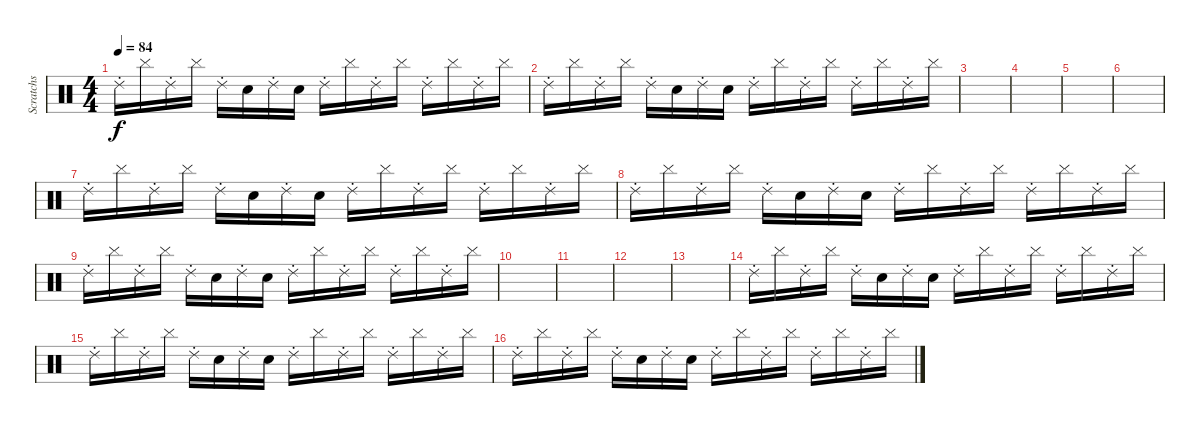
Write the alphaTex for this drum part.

\track ("Scratchs" "Scratchs") {instrument percussion}
\staff {score}
\articulation defaults
\ts (4 4)
\tempo 84
\clef neutral
\ks c "Ride (choke) 2".16{dy f} "Cymbal (hit)".16 "Ride (choke) 2".16 "Cymbal (hit)".16 "Ride (choke) 2".16 "Snare (hit)".16 "Ride (choke) 2".16 "Snare (hit)".16 "Ride (choke) 2".16 "Cymbal (hit)".16 "Ride (choke) 2".16 "Cymbal (hit)".16 "Ride (choke) 2".16 "Cymbal (hit)".16 "Ride (choke) 2".16 "Cymbal (hit)".16
|
"Ride (choke) 2".16 "Cymbal (hit)".16 "Ride (choke) 2".16 "Cymbal (hit)".16 "Ride (choke) 2".16 "Snare (hit)".16 "Ride (choke) 2".16 "Snare (hit)".16 "Ride (choke) 2".16 "Cymbal (hit)".16 "Ride (choke) 2".16 "Cymbal (hit)".16 "Ride (choke) 2".16 "Cymbal (hit)".16 "Ride (choke) 2".16 "Cymbal (hit)".16 |
|
|
|
|
"Ride (choke) 2".16 "Cymbal (hit)".16 "Ride (choke) 2".16 "Cymbal (hit)".16 "Ride (choke) 2".16 "Snare (hit)".16 "Ride (choke) 2".16 "Snare (hit)".16 "Ride (choke) 2".16 "Cymbal (hit)".16 "Ride (choke) 2".16 "Cymbal (hit)".16 "Ride (choke) 2".16 "Cymbal (hit)".16 "Ride (choke) 2".16 "Cymbal (hit)".16 |
"Ride (choke) 2".16 "Cymbal (hit)".16 "Ride (choke) 2".16 "Cymbal (hit)".16 "Ride (choke) 2".16 "Snare (hit)".16 "Ride (choke) 2".16 "Snare (hit)".16 "Ride (choke) 2".16 "Cymbal (hit)".16 "Ride (choke) 2".16 "Cymbal (hit)".16 "Ride (choke) 2".16 "Cymbal (hit)".16 "Ride (choke) 2".16 "Cymbal (hit)".16 |
"Ride (choke) 2".16 "Cymbal (hit)".16 "Ride (choke) 2".16 "Cymbal (hit)".16 "Ride (choke) 2".16 "Snare (hit)".16 "Ride (choke) 2".16 "Snare (hit)".16 "Ride (choke) 2".16 "Cymbal (hit)".16 "Ride (choke) 2".16 "Cymbal (hit)".16 "Ride (choke) 2".16 "Cymbal (hit)".16 "Ride (choke) 2".16 "Cymbal (hit)".16 |
|
|
|
|
"Ride (choke) 2".16 "Cymbal (hit)".16 "Ride (choke) 2".16 "Cymbal (hit)".16 "Ride (choke) 2".16 "Snare (hit)".16 "Ride (choke) 2".16 "Snare (hit)".16 "Ride (choke) 2".16 "Cymbal (hit)".16 "Ride (choke) 2".16 "Cymbal (hit)".16 "Ride (choke) 2".16 "Cymbal (hit)".16 "Ride (choke) 2".16 "Cymbal (hit)".16 |
"Ride (choke) 2".16 "Cymbal (hit)".16 "Ride (choke) 2".16 "Cymbal (hit)".16 "Ride (choke) 2".16 "Snare (hit)".16 "Ride (choke) 2".16 "Snare (hit)".16 "Ride (choke) 2".16 "Cymbal (hit)".16 "Ride (choke) 2".16 "Cymbal (hit)".16 "Ride (choke) 2".16 "Cymbal (hit)".16 "Ride (choke) 2".16 "Cymbal (hit)".16 |
"Ride (choke) 2".16 "Cymbal (hit)".16 "Ride (choke) 2".16 "Cymbal (hit)".16 "Ride (choke) 2".16 "Snare (hit)".16 "Ride (choke) 2".16 "Snare (hit)".16 "Ride (choke) 2".16 "Cymbal (hit)".16 "Ride (choke) 2".16 "Cymbal (hit)".16 "Ride (choke) 2".16 "Cymbal (hit)".16 "Ride (choke) 2".16 "Cymbal (hit)".16
